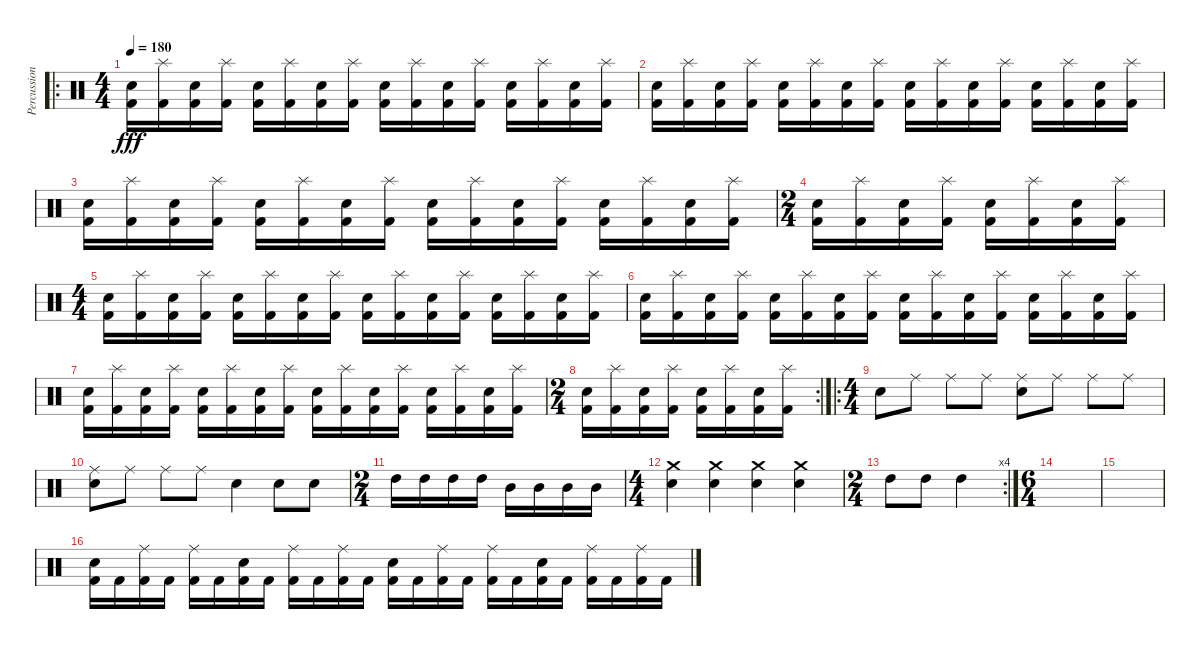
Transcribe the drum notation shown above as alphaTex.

\track ("Percussion" "Percussion") {instrument percussion}
\staff {score}
\articulation defaults
\ro
\ts (4 4)
\tempo 180
\clef neutral
\ks c
("Electric Snare (hit)" "Kick (hit) 2").16{dy fff} ("Splash (hit)" "Kick (hit) 2").16 ("Electric Snare (hit)" "Kick (hit) 2").16 ("Splash (hit)" "Kick (hit) 2").16 ("Electric Snare (hit)" "Kick (hit) 2").16 ("Splash (hit)" "Kick (hit) 2").16 ("Electric Snare (hit)" "Kick (hit) 2").16 ("Splash (hit)" "Kick (hit) 2").16 ("Electric Snare (hit)" "Kick (hit) 2").16 ("Splash (hit)" "Kick (hit) 2").16 ("Electric Snare (hit)" "Kick (hit) 2").16 ("Splash (hit)" "Kick (hit) 2").16 ("Electric Snare (hit)" "Kick (hit) 2").16 ("Splash (hit)" "Kick (hit) 2").16 ("Electric Snare (hit)" "Kick (hit) 2").16 ("Splash (hit)" "Kick (hit) 2").16 |
("Electric Snare (hit)" "Kick (hit) 2").16 ("Splash (hit)" "Kick (hit) 2").16 ("Electric Snare (hit)" "Kick (hit) 2").16 ("Splash (hit)" "Kick (hit) 2").16 ("Electric Snare (hit)" "Kick (hit) 2").16 ("Splash (hit)" "Kick (hit) 2").16 ("Electric Snare (hit)" "Kick (hit) 2").16 ("Splash (hit)" "Kick (hit) 2").16 ("Electric Snare (hit)" "Kick (hit) 2").16 ("Splash (hit)" "Kick (hit) 2").16 ("Electric Snare (hit)" "Kick (hit) 2").16 ("Splash (hit)" "Kick (hit) 2").16 ("Electric Snare (hit)" "Kick (hit) 2").16 ("Splash (hit)" "Kick (hit) 2").16 ("Electric Snare (hit)" "Kick (hit) 2").16 ("Splash (hit)" "Kick (hit) 2").16 |
("Electric Snare (hit)" "Kick (hit) 2").16 ("Splash (hit)" "Kick (hit) 2").16 ("Electric Snare (hit)" "Kick (hit) 2").16 ("Splash (hit)" "Kick (hit) 2").16 ("Electric Snare (hit)" "Kick (hit) 2").16 ("Splash (hit)" "Kick (hit) 2").16 ("Electric Snare (hit)" "Kick (hit) 2").16 ("Splash (hit)" "Kick (hit) 2").16 ("Electric Snare (hit)" "Kick (hit) 2").16 ("Splash (hit)" "Kick (hit) 2").16 ("Electric Snare (hit)" "Kick (hit) 2").16 ("Splash (hit)" "Kick (hit) 2").16 ("Electric Snare (hit)" "Kick (hit) 2").16 ("Splash (hit)" "Kick (hit) 2").16 ("Electric Snare (hit)" "Kick (hit) 2").16 ("Splash (hit)" "Kick (hit) 2").16 |
\ts (2 4)
("Electric Snare (hit)" "Kick (hit) 2").16 ("Splash (hit)" "Kick (hit) 2").16 ("Electric Snare (hit)" "Kick (hit) 2").16 ("Splash (hit)" "Kick (hit) 2").16 ("Electric Snare (hit)" "Kick (hit) 2").16 ("Splash (hit)" "Kick (hit) 2").16 ("Electric Snare (hit)" "Kick (hit) 2").16 ("Splash (hit)" "Kick (hit) 2").16 |
\ts (4 4)
("Electric Snare (hit)" "Kick (hit) 2").16 ("Splash (hit)" "Kick (hit) 2").16 ("Electric Snare (hit)" "Kick (hit) 2").16 ("Splash (hit)" "Kick (hit) 2").16 ("Electric Snare (hit)" "Kick (hit) 2").16 ("Splash (hit)" "Kick (hit) 2").16 ("Electric Snare (hit)" "Kick (hit) 2").16 ("Splash (hit)" "Kick (hit) 2").16 ("Electric Snare (hit)" "Kick (hit) 2").16 ("Splash (hit)" "Kick (hit) 2").16 ("Electric Snare (hit)" "Kick (hit) 2").16 ("Splash (hit)" "Kick (hit) 2").16 ("Electric Snare (hit)" "Kick (hit) 2").16 ("Splash (hit)" "Kick (hit) 2").16 ("Electric Snare (hit)" "Kick (hit) 2").16 ("Splash (hit)" "Kick (hit) 2").16 |
("Electric Snare (hit)" "Kick (hit) 2").16 ("Splash (hit)" "Kick (hit) 2").16 ("Electric Snare (hit)" "Kick (hit) 2").16 ("Splash (hit)" "Kick (hit) 2").16 ("Electric Snare (hit)" "Kick (hit) 2").16 ("Splash (hit)" "Kick (hit) 2").16 ("Electric Snare (hit)" "Kick (hit) 2").16 ("Splash (hit)" "Kick (hit) 2").16 ("Electric Snare (hit)" "Kick (hit) 2").16 ("Splash (hit)" "Kick (hit) 2").16 ("Electric Snare (hit)" "Kick (hit) 2").16 ("Splash (hit)" "Kick (hit) 2").16 ("Electric Snare (hit)" "Kick (hit) 2").16 ("Splash (hit)" "Kick (hit) 2").16 ("Electric Snare (hit)" "Kick (hit) 2").16 ("Splash (hit)" "Kick (hit) 2").16 |
("Electric Snare (hit)" "Kick (hit) 2").16 ("Splash (hit)" "Kick (hit) 2").16 ("Electric Snare (hit)" "Kick (hit) 2").16 ("Splash (hit)" "Kick (hit) 2").16 ("Electric Snare (hit)" "Kick (hit) 2").16 ("Splash (hit)" "Kick (hit) 2").16 ("Electric Snare (hit)" "Kick (hit) 2").16 ("Splash (hit)" "Kick (hit) 2").16 ("Electric Snare (hit)" "Kick (hit) 2").16 ("Splash (hit)" "Kick (hit) 2").16 ("Electric Snare (hit)" "Kick (hit) 2").16 ("Splash (hit)" "Kick (hit) 2").16 ("Electric Snare (hit)" "Kick (hit) 2").16 ("Splash (hit)" "Kick (hit) 2").16 ("Electric Snare (hit)" "Kick (hit) 2").16 ("Splash (hit)" "Kick (hit) 2").16 |
\rc 2
\ts (2 4)
("Electric Snare (hit)" "Kick (hit) 2").16 ("Splash (hit)" "Kick (hit) 2").16 ("Electric Snare (hit)" "Kick (hit) 2").16 ("Splash (hit)" "Kick (hit) 2").16 ("Electric Snare (hit)" "Kick (hit) 2").16 ("Splash (hit)" "Kick (hit) 2").16 ("Electric Snare (hit)" "Kick (hit) 2").16 ("Splash (hit)" "Kick (hit) 2").16 |
\ro
\ts (4 4)
"Electric Snare (hit)".8 "Ride (middle)".8 "Ride (middle)".8 "Ride (middle)".8 ("Ride (middle)" "Electric Snare (hit)").8 "Ride (middle)".8 "Ride (middle)".8 "Ride (middle)".8 |
("Ride (middle)" "Electric Snare (hit)").8 "Ride (middle)".8 "Ride (middle)".8 "Ride (middle)".8 "Electric Snare (hit)".4 "Electric Snare (hit)".8 "Electric Snare (hit)".8 |
\ts (2 4)
"High Tom (hit)".16 "High Tom (hit)".16 "High Tom (hit)".16 "High Tom (hit)".16 "Mid Tom (hit)".16 "Mid Tom (hit)".16 "Mid Tom (hit)".16 "Mid Tom (hit)".16 |
\ts (4 4)
("Crash medium (hit)" "Electric Snare (hit)").4 ("Crash medium (hit)" "Electric Snare (hit)").4 ("Crash medium (hit)" "Electric Snare (hit)").4 ("Crash medium (hit)" "Electric Snare (hit)").4 |
\rc 4
\ts (2 4)
"High Tom (hit)".8 "High Tom (hit)".8 "High Tom (hit)".4 |
\ts (6 4)
|
|
("Electric Snare (hit)" "Kick (hit) 2").16 "Kick (hit) 2".16 ("Ride (middle)" "Kick (hit) 2").16 "Kick (hit) 2".16 ("Ride (middle)" "Kick (hit) 2").16 "Kick (hit) 2".16 ("Electric Snare (hit)" "Kick (hit) 2").16 "Kick (hit) 2".16 ("Ride (middle)" "Kick (hit) 2").16 "Kick (hit) 2".16 ("Ride (middle)" "Kick (hit) 2").16 "Kick (hit) 2".16 ("Electric Snare (hit)" "Kick (hit) 2").16 "Kick (hit) 2".16 ("Ride (middle)" "Kick (hit) 2").16 "Kick (hit) 2".16 ("Ride (middle)" "Kick (hit) 2").16 "Kick (hit) 2".16 ("Electric Snare (hit)" "Kick (hit) 2").16 "Kick (hit) 2".16 ("Ride (middle)" "Kick (hit) 2").16 "Kick (hit) 2".16 ("Ride (middle)" "Kick (hit) 2").16 "Kick (hit) 2".16
